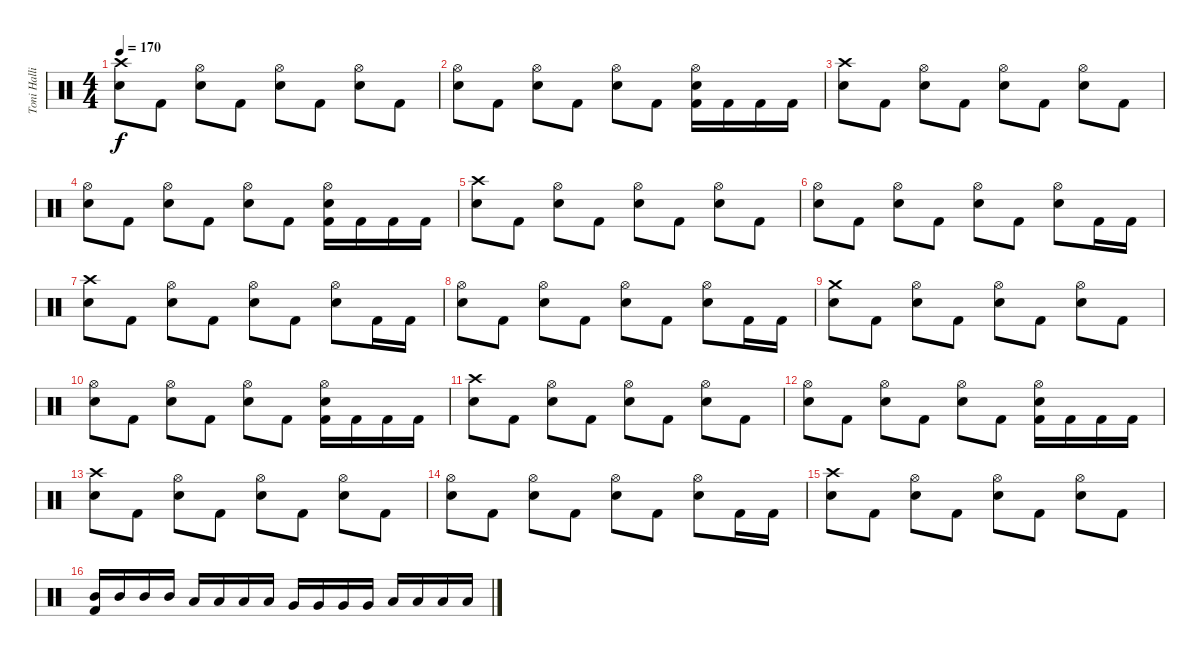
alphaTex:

\track ("Toni Hallio" "Toni Halli") {instrument percussion}
\staff {score}
\articulation defaults
\ts (4 4)
\tempo 170
\clef neutral
\ks c
("Crash high (hit)" "Snare (hit) 2").8{dy f} "Kick (hit) 2".8 ("Hi-Hat (open)" "Snare (hit) 2").8 "Kick (hit) 2".8 ("Hi-Hat (open)" "Snare (hit) 2").8 "Kick (hit) 2".8 ("Hi-Hat (open)" "Snare (hit) 2").8 "Kick (hit) 2".8 |
("Hi-Hat (open)" "Snare (hit) 2").8 "Kick (hit) 2".8 ("Hi-Hat (open)" "Snare (hit) 2").8 "Kick (hit) 2".8 ("Hi-Hat (open)" "Snare (hit) 2").8 "Kick (hit) 2".8 ("Hi-Hat (open)" "Snare (hit) 2" "Kick (hit) 2").16 "Kick (hit) 2".16 "Kick (hit) 2".16 "Kick (hit) 2".16 |
("Crash high (hit)" "Snare (hit) 2").8 "Kick (hit) 2".8 ("Hi-Hat (open)" "Snare (hit) 2").8 "Kick (hit) 2".8 ("Hi-Hat (open)" "Snare (hit) 2").8 "Kick (hit) 2".8 ("Hi-Hat (open)" "Snare (hit) 2").8 "Kick (hit) 2".8 |
("Hi-Hat (open)" "Snare (hit) 2").8 "Kick (hit) 2".8 ("Hi-Hat (open)" "Snare (hit) 2").8 "Kick (hit) 2".8 ("Hi-Hat (open)" "Snare (hit) 2").8 "Kick (hit) 2".8 ("Hi-Hat (open)" "Snare (hit) 2" "Kick (hit) 2").16 "Kick (hit) 2".16 "Kick (hit) 2".16 "Kick (hit) 2".16 |
("Crash high (hit)" "Snare (hit) 2").8 "Kick (hit) 2".8 ("Hi-Hat (open)" "Snare (hit) 2").8 "Kick (hit) 2".8 ("Hi-Hat (open)" "Snare (hit) 2").8 "Kick (hit) 2".8 ("Hi-Hat (open)" "Snare (hit) 2").8 "Kick (hit) 2".8 |
("Hi-Hat (open)" "Snare (hit) 2").8 "Kick (hit) 2".8 ("Hi-Hat (open)" "Snare (hit) 2").8 "Kick (hit) 2".8 ("Hi-Hat (open)" "Snare (hit) 2").8 "Kick (hit) 2".8 ("Hi-Hat (open)" "Snare (hit) 2").8 "Kick (hit) 2".16 "Kick (hit) 2".16 |
("Crash high (hit)" "Snare (hit) 2").8 "Kick (hit) 2".8 ("Hi-Hat (open)" "Snare (hit) 2").8 "Kick (hit) 2".8 ("Hi-Hat (open)" "Snare (hit) 2").8 "Kick (hit) 2".8 ("Hi-Hat (open)" "Snare (hit) 2").8 "Kick (hit) 2".16 "Kick (hit) 2".16 |
("Hi-Hat (open)" "Snare (hit) 2").8 "Kick (hit) 2".8 ("Hi-Hat (open)" "Snare (hit) 2").8 "Kick (hit) 2".8 ("Hi-Hat (open)" "Snare (hit) 2").8 "Kick (hit) 2".8 ("Hi-Hat (open)" "Snare (hit) 2").8 "Kick (hit) 2".16 "Kick (hit) 2".16 |
("Crash medium (hit)" "Snare (hit) 2").8 "Kick (hit) 2".8 ("Hi-Hat (open)" "Snare (hit) 2").8 "Kick (hit) 2".8 ("Hi-Hat (open)" "Snare (hit) 2").8 "Kick (hit) 2".8 ("Hi-Hat (open)" "Snare (hit) 2").8 "Kick (hit) 2".8 |
("Hi-Hat (open)" "Snare (hit) 2").8 "Kick (hit) 2".8 ("Hi-Hat (open)" "Snare (hit) 2").8 "Kick (hit) 2".8 ("Hi-Hat (open)" "Snare (hit) 2").8 "Kick (hit) 2".8 ("Hi-Hat (open)" "Snare (hit) 2" "Kick (hit) 2").16 "Kick (hit) 2".16 "Kick (hit) 2".16 "Kick (hit) 2".16 |
("Crash high (hit)" "Snare (hit) 2").8 "Kick (hit) 2".8 ("Hi-Hat (open)" "Snare (hit) 2").8 "Kick (hit) 2".8 ("Hi-Hat (open)" "Snare (hit) 2").8 "Kick (hit) 2".8 ("Hi-Hat (open)" "Snare (hit) 2").8 "Kick (hit) 2".8 |
("Hi-Hat (open)" "Snare (hit) 2").8 "Kick (hit) 2".8 ("Hi-Hat (open)" "Snare (hit) 2").8 "Kick (hit) 2".8 ("Hi-Hat (open)" "Snare (hit) 2").8 "Kick (hit) 2".8 ("Hi-Hat (open)" "Snare (hit) 2" "Kick (hit) 2").16 "Kick (hit) 2".16 "Kick (hit) 2".16 "Kick (hit) 2".16 |
("Crash high (hit)" "Snare (hit) 2").8 "Kick (hit) 2".8 ("Hi-Hat (open)" "Snare (hit) 2").8 "Kick (hit) 2".8 ("Hi-Hat (open)" "Snare (hit) 2").8 "Kick (hit) 2".8 ("Hi-Hat (open)" "Snare (hit) 2").8 "Kick (hit) 2".8 |
("Hi-Hat (open)" "Snare (hit) 2").8 "Kick (hit) 2".8 ("Hi-Hat (open)" "Snare (hit) 2").8 "Kick (hit) 2".8 ("Hi-Hat (open)" "Snare (hit) 2").8 "Kick (hit) 2".8 ("Hi-Hat (open)" "Snare (hit) 2").8 "Kick (hit) 2".16 "Kick (hit) 2".16 |
("Crash high (hit)" "Snare (hit) 2").8 "Kick (hit) 2".8 ("Hi-Hat (open)" "Snare (hit) 2").8 "Kick (hit) 2".8 ("Hi-Hat (open)" "Snare (hit) 2").8 "Kick (hit) 2".8 ("Hi-Hat (open)" "Snare (hit) 2").8 "Kick (hit) 2".8 |
("Mid Tom (hit)" "Kick (hit) 2").16 "Mid Tom (hit)".16 "Mid Tom (hit)".16 "Mid Tom (hit)".16 "Low Tom (hit)".16 "Low Tom (hit)".16 "Low Tom (hit)".16 "Low Tom (hit)".16 "Very Low Tom (hit)".16 "Very Low Tom (hit)".16 "Very Low Tom (hit)".16 "Very Low Tom (hit)".16 "Low Floor Tom (hit)".16 "Low Floor Tom (hit)".16 "Low Floor Tom (hit)".16 "Low Floor Tom (hit)".16
